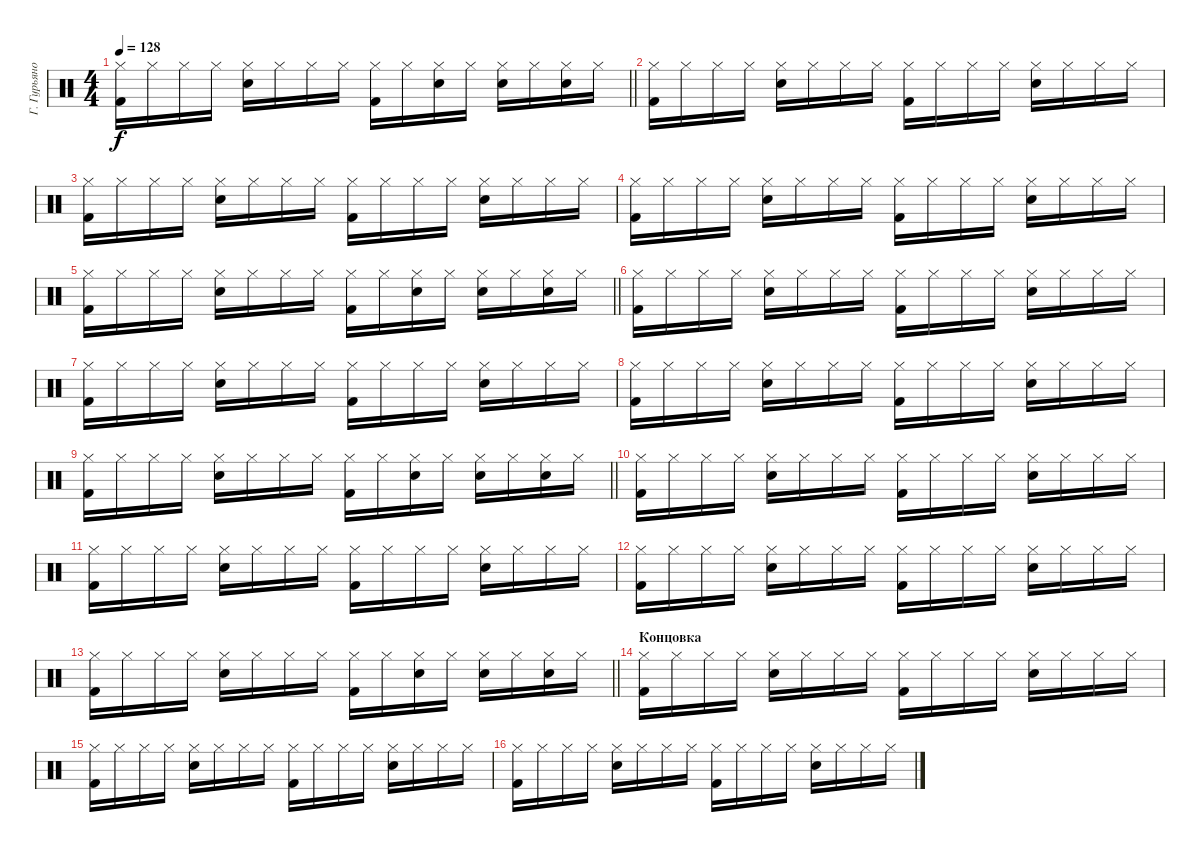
\track ("Г. Гурьянов" "Г. Гурьяно") {instrument percussion}
\staff
\articulation defaults
\ts (4 4)
\tempo 128
\clef neutral
\barLineRight lightlight
\ks c
("Hi-Hat (closed)" "Kick (hit) 2").16{dy f} "Hi-Hat (closed)".16 "Hi-Hat (closed)".16 "Hi-Hat (closed)".16 ("Hi-Hat (closed)" "Snare (hit) 2").16 "Hi-Hat (closed)".16 "Hi-Hat (closed)".16 "Hi-Hat (closed)".16 ("Hi-Hat (closed)" "Kick (hit) 2").16 "Hi-Hat (closed)".16 ("Hi-Hat (closed)" "Snare (hit) 2").16 "Hi-Hat (closed)".16 ("Hi-Hat (closed)" "Snare (hit) 2").16 "Hi-Hat (closed)".16 ("Hi-Hat (closed)" "Snare (hit) 2").16 "Hi-Hat (closed)".16 |
("Hi-Hat (closed)" "Kick (hit) 2").16 "Hi-Hat (closed)".16 "Hi-Hat (closed)".16 "Hi-Hat (closed)".16 ("Hi-Hat (closed)" "Snare (hit) 2").16 "Hi-Hat (closed)".16 "Hi-Hat (closed)".16 "Hi-Hat (closed)".16 ("Hi-Hat (closed)" "Kick (hit) 2").16 "Hi-Hat (closed)".16 "Hi-Hat (closed)".16 "Hi-Hat (closed)".16 ("Hi-Hat (closed)" "Snare (hit) 2").16 "Hi-Hat (closed)".16 "Hi-Hat (closed)".16 "Hi-Hat (closed)".16 |
("Hi-Hat (closed)" "Kick (hit) 2").16 "Hi-Hat (closed)".16 "Hi-Hat (closed)".16 "Hi-Hat (closed)".16 ("Hi-Hat (closed)" "Snare (hit) 2").16 "Hi-Hat (closed)".16 "Hi-Hat (closed)".16 "Hi-Hat (closed)".16 ("Hi-Hat (closed)" "Kick (hit) 2").16 "Hi-Hat (closed)".16 "Hi-Hat (closed)".16 "Hi-Hat (closed)".16 ("Hi-Hat (closed)" "Snare (hit) 2").16 "Hi-Hat (closed)".16 "Hi-Hat (closed)".16 "Hi-Hat (closed)".16 |
("Hi-Hat (closed)" "Kick (hit) 2").16 "Hi-Hat (closed)".16 "Hi-Hat (closed)".16 "Hi-Hat (closed)".16 ("Hi-Hat (closed)" "Snare (hit) 2").16 "Hi-Hat (closed)".16 "Hi-Hat (closed)".16 "Hi-Hat (closed)".16 ("Hi-Hat (closed)" "Kick (hit) 2").16 "Hi-Hat (closed)".16 "Hi-Hat (closed)".16 "Hi-Hat (closed)".16 ("Hi-Hat (closed)" "Snare (hit) 2").16 "Hi-Hat (closed)".16 "Hi-Hat (closed)".16 "Hi-Hat (closed)".16 |
\barLineRight lightlight
("Hi-Hat (closed)" "Kick (hit) 2").16 "Hi-Hat (closed)".16 "Hi-Hat (closed)".16 "Hi-Hat (closed)".16 ("Hi-Hat (closed)" "Snare (hit) 2").16 "Hi-Hat (closed)".16 "Hi-Hat (closed)".16 "Hi-Hat (closed)".16 ("Hi-Hat (closed)" "Kick (hit) 2").16 "Hi-Hat (closed)".16 ("Hi-Hat (closed)" "Snare (hit) 2").16 "Hi-Hat (closed)".16 ("Hi-Hat (closed)" "Snare (hit) 2").16 "Hi-Hat (closed)".16 ("Hi-Hat (closed)" "Snare (hit) 2").16 "Hi-Hat (closed)".16 |
("Hi-Hat (closed)" "Kick (hit) 2").16 "Hi-Hat (closed)".16 "Hi-Hat (closed)".16 "Hi-Hat (closed)".16 ("Hi-Hat (closed)" "Snare (hit) 2").16 "Hi-Hat (closed)".16 "Hi-Hat (closed)".16 "Hi-Hat (closed)".16 ("Hi-Hat (closed)" "Kick (hit) 2").16 "Hi-Hat (closed)".16 "Hi-Hat (closed)".16 "Hi-Hat (closed)".16 ("Hi-Hat (closed)" "Snare (hit) 2").16 "Hi-Hat (closed)".16 "Hi-Hat (closed)".16 "Hi-Hat (closed)".16 |
("Hi-Hat (closed)" "Kick (hit) 2").16 "Hi-Hat (closed)".16 "Hi-Hat (closed)".16 "Hi-Hat (closed)".16 ("Hi-Hat (closed)" "Snare (hit) 2").16 "Hi-Hat (closed)".16 "Hi-Hat (closed)".16 "Hi-Hat (closed)".16 ("Hi-Hat (closed)" "Kick (hit) 2").16 "Hi-Hat (closed)".16 "Hi-Hat (closed)".16 "Hi-Hat (closed)".16 ("Hi-Hat (closed)" "Snare (hit) 2").16 "Hi-Hat (closed)".16 "Hi-Hat (closed)".16 "Hi-Hat (closed)".16 |
("Hi-Hat (closed)" "Kick (hit) 2").16 "Hi-Hat (closed)".16 "Hi-Hat (closed)".16 "Hi-Hat (closed)".16 ("Hi-Hat (closed)" "Snare (hit) 2").16 "Hi-Hat (closed)".16 "Hi-Hat (closed)".16 "Hi-Hat (closed)".16 ("Hi-Hat (closed)" "Kick (hit) 2").16 "Hi-Hat (closed)".16 "Hi-Hat (closed)".16 "Hi-Hat (closed)".16 ("Hi-Hat (closed)" "Snare (hit) 2").16 "Hi-Hat (closed)".16 "Hi-Hat (closed)".16 "Hi-Hat (closed)".16 |
\barLineRight lightlight
("Hi-Hat (closed)" "Kick (hit) 2").16 "Hi-Hat (closed)".16 "Hi-Hat (closed)".16 "Hi-Hat (closed)".16 ("Hi-Hat (closed)" "Snare (hit) 2").16 "Hi-Hat (closed)".16 "Hi-Hat (closed)".16 "Hi-Hat (closed)".16 ("Hi-Hat (closed)" "Kick (hit) 2").16 "Hi-Hat (closed)".16 ("Hi-Hat (closed)" "Snare (hit) 2").16 "Hi-Hat (closed)".16 ("Hi-Hat (closed)" "Snare (hit) 2").16 "Hi-Hat (closed)".16 ("Hi-Hat (closed)" "Snare (hit) 2").16 "Hi-Hat (closed)".16 |
("Hi-Hat (closed)" "Kick (hit) 2").16 "Hi-Hat (closed)".16 "Hi-Hat (closed)".16 "Hi-Hat (closed)".16 ("Hi-Hat (closed)" "Snare (hit) 2").16 "Hi-Hat (closed)".16 "Hi-Hat (closed)".16 "Hi-Hat (closed)".16 ("Hi-Hat (closed)" "Kick (hit) 2").16 "Hi-Hat (closed)".16 "Hi-Hat (closed)".16 "Hi-Hat (closed)".16 ("Hi-Hat (closed)" "Snare (hit) 2").16 "Hi-Hat (closed)".16 "Hi-Hat (closed)".16 "Hi-Hat (closed)".16 |
("Hi-Hat (closed)" "Kick (hit) 2").16 "Hi-Hat (closed)".16 "Hi-Hat (closed)".16 "Hi-Hat (closed)".16 ("Hi-Hat (closed)" "Snare (hit) 2").16 "Hi-Hat (closed)".16 "Hi-Hat (closed)".16 "Hi-Hat (closed)".16 ("Hi-Hat (closed)" "Kick (hit) 2").16 "Hi-Hat (closed)".16 "Hi-Hat (closed)".16 "Hi-Hat (closed)".16 ("Hi-Hat (closed)" "Snare (hit) 2").16 "Hi-Hat (closed)".16 "Hi-Hat (closed)".16 "Hi-Hat (closed)".16 |
("Hi-Hat (closed)" "Kick (hit) 2").16 "Hi-Hat (closed)".16 "Hi-Hat (closed)".16 "Hi-Hat (closed)".16 ("Hi-Hat (closed)" "Snare (hit) 2").16 "Hi-Hat (closed)".16 "Hi-Hat (closed)".16 "Hi-Hat (closed)".16 ("Hi-Hat (closed)" "Kick (hit) 2").16 "Hi-Hat (closed)".16 "Hi-Hat (closed)".16 "Hi-Hat (closed)".16 ("Hi-Hat (closed)" "Snare (hit) 2").16 "Hi-Hat (closed)".16 "Hi-Hat (closed)".16 "Hi-Hat (closed)".16 |
\barLineRight lightlight
("Hi-Hat (closed)" "Kick (hit) 2").16 "Hi-Hat (closed)".16 "Hi-Hat (closed)".16 "Hi-Hat (closed)".16 ("Hi-Hat (closed)" "Snare (hit) 2").16 "Hi-Hat (closed)".16 "Hi-Hat (closed)".16 "Hi-Hat (closed)".16 ("Hi-Hat (closed)" "Kick (hit) 2").16 "Hi-Hat (closed)".16 ("Hi-Hat (closed)" "Snare (hit) 2").16 "Hi-Hat (closed)".16 ("Hi-Hat (closed)" "Snare (hit) 2").16 "Hi-Hat (closed)".16 ("Hi-Hat (closed)" "Snare (hit) 2").16 "Hi-Hat (closed)".16 |
\section ("" "Концовка")
("Hi-Hat (closed)" "Kick (hit) 2").16 "Hi-Hat (closed)".16 "Hi-Hat (closed)".16 "Hi-Hat (closed)".16 ("Hi-Hat (closed)" "Snare (hit) 2").16 "Hi-Hat (closed)".16 "Hi-Hat (closed)".16 "Hi-Hat (closed)".16 ("Hi-Hat (closed)" "Kick (hit) 2").16 "Hi-Hat (closed)".16 "Hi-Hat (closed)".16 "Hi-Hat (closed)".16 ("Hi-Hat (closed)" "Snare (hit) 2").16 "Hi-Hat (closed)".16 "Hi-Hat (closed)".16 "Hi-Hat (closed)".16 |
("Hi-Hat (closed)" "Kick (hit) 2").16 "Hi-Hat (closed)".16 "Hi-Hat (closed)".16 "Hi-Hat (closed)".16 ("Hi-Hat (closed)" "Snare (hit) 2").16 "Hi-Hat (closed)".16 "Hi-Hat (closed)".16 "Hi-Hat (closed)".16 ("Hi-Hat (closed)" "Kick (hit) 2").16 "Hi-Hat (closed)".16 "Hi-Hat (closed)".16 "Hi-Hat (closed)".16 ("Hi-Hat (closed)" "Snare (hit) 2").16 "Hi-Hat (closed)".16 "Hi-Hat (closed)".16 "Hi-Hat (closed)".16 |
("Hi-Hat (closed)" "Kick (hit) 2").16 "Hi-Hat (closed)".16 "Hi-Hat (closed)".16 "Hi-Hat (closed)".16 ("Hi-Hat (closed)" "Snare (hit) 2").16 "Hi-Hat (closed)".16 "Hi-Hat (closed)".16 "Hi-Hat (closed)".16 ("Hi-Hat (closed)" "Kick (hit) 2").16 "Hi-Hat (closed)".16 "Hi-Hat (closed)".16 "Hi-Hat (closed)".16 ("Hi-Hat (closed)" "Snare (hit) 2").16 "Hi-Hat (closed)".16 "Hi-Hat (closed)".16 "Hi-Hat (closed)".16
